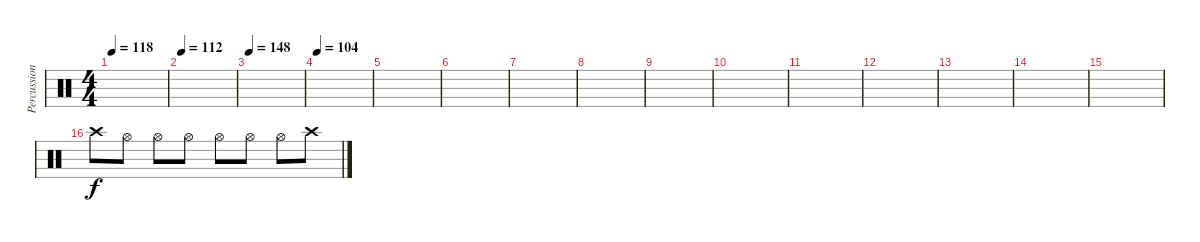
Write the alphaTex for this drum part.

\track ("Percussion" "Percussion") {instrument percussion}
\staff {score}
\articulation defaults
\ts (4 4)
\tempo 118
\clef neutral
\ks c
|
\tempo 112
|
\tempo 148
|
\tempo 104
|
|
|
|
|
|
|
|
|
|
|
|
"Crash high (hit)".8 "Hi-Hat (open)".8 "Hi-Hat (open)".8 "Hi-Hat (open)".8 "Hi-Hat (open)".8 "Hi-Hat (open)".8 "Hi-Hat (open)".8 "Crash high (hit)".8
